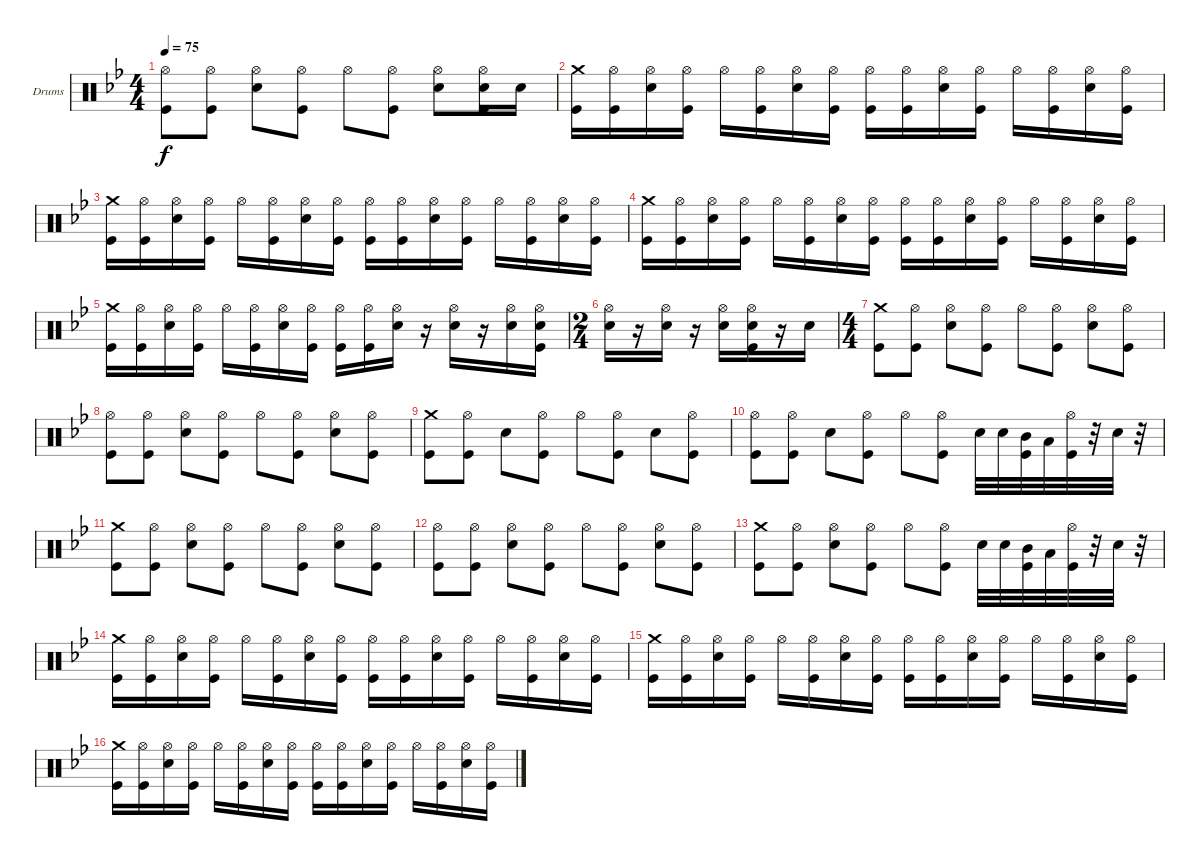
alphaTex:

\bracketExtendMode groupsimilarinstruments
\firstSystemTrackNameOrientation horizontal
\otherSystemsTrackNameOrientation horizontal
\track ("Drumkit" "Drums") {instrument percussion}
\staff {score}
\articulation defaults
\ts (4 4)
\tempo 75
\clef neutral
\ks bb
("Hi-Hat (open)" "Kick (hit)").8{dy f} ("Hi-Hat (open)" "Kick (hit)").8 ("Hi-Hat (open)" "Snare (hit) 2").8 ("Hi-Hat (open)" "Kick (hit)").8 "Hi-Hat (open)".8 ("Hi-Hat (open)" "Kick (hit)").8 ("Hi-Hat (open)" "Snare (hit) 2").8 ("Hi-Hat (open)" "Snare (hit) 2" "Kick (hit)").16 "Snare (hit) 2".16 |
("Crash medium (hit)" "Kick (hit)").16 ("Hi-Hat (open)" "Kick (hit)").16 ("Hi-Hat (open)" "Snare (hit) 2").16 ("Hi-Hat (open)" "Kick (hit)").16 "Hi-Hat (open)".16 ("Hi-Hat (open)" "Kick (hit)").16 ("Hi-Hat (open)" "Snare (hit) 2").16 ("Hi-Hat (open)" "Kick (hit)").16 ("Hi-Hat (open)" "Kick (hit)").16 ("Hi-Hat (open)" "Kick (hit)").16 ("Hi-Hat (open)" "Snare (hit) 2").16 ("Hi-Hat (open)" "Kick (hit)").16 "Hi-Hat (open)".16 ("Hi-Hat (open)" "Kick (hit)").16 ("Hi-Hat (open)" "Snare (hit) 2").16 ("Hi-Hat (open)" "Kick (hit)").16 |
("Crash medium (hit)" "Kick (hit)").16 ("Hi-Hat (open)" "Kick (hit)").16 ("Hi-Hat (open)" "Snare (hit) 2").16 ("Hi-Hat (open)" "Kick (hit)").16 "Hi-Hat (open)".16 ("Hi-Hat (open)" "Kick (hit)").16 ("Hi-Hat (open)" "Snare (hit) 2").16 ("Hi-Hat (open)" "Kick (hit)").16 ("Hi-Hat (open)" "Kick (hit)").16 ("Hi-Hat (open)" "Kick (hit)").16 ("Hi-Hat (open)" "Snare (hit) 2").16 ("Hi-Hat (open)" "Kick (hit)").16 "Hi-Hat (open)".16 ("Hi-Hat (open)" "Kick (hit)").16 ("Hi-Hat (open)" "Snare (hit) 2").16 ("Hi-Hat (open)" "Kick (hit)").16 |
("Crash medium (hit)" "Kick (hit)").16 ("Hi-Hat (open)" "Kick (hit)").16 ("Hi-Hat (open)" "Snare (hit) 2").16 ("Hi-Hat (open)" "Kick (hit)").16 "Hi-Hat (open)".16 ("Hi-Hat (open)" "Kick (hit)").16 ("Hi-Hat (open)" "Snare (hit) 2").16 ("Hi-Hat (open)" "Kick (hit)").16 ("Hi-Hat (open)" "Kick (hit)").16 ("Hi-Hat (open)" "Kick (hit)").16 ("Hi-Hat (open)" "Snare (hit) 2").16 ("Hi-Hat (open)" "Kick (hit)").16 "Hi-Hat (open)".16 ("Hi-Hat (open)" "Kick (hit)").16 ("Hi-Hat (open)" "Snare (hit) 2").16 ("Hi-Hat (open)" "Kick (hit)").16 |
("Crash medium (hit)" "Kick (hit)").16 ("Hi-Hat (open)" "Kick (hit)").16 ("Hi-Hat (open)" "Snare (hit) 2").16 ("Hi-Hat (open)" "Kick (hit)").16 "Hi-Hat (open)".16 ("Hi-Hat (open)" "Kick (hit)").16 ("Hi-Hat (open)" "Snare (hit) 2").16 ("Hi-Hat (open)" "Kick (hit)").16 ("Hi-Hat (open)" "Kick (hit)").16 ("Hi-Hat (open)" "Kick (hit)").16 ("Hi-Hat (open)" "Snare (hit) 2").16 r.16 ("Hi-Hat (open)" "Snare (hit) 2").16 r.16 ("Hi-Hat (open)" "Snare (hit) 2").16 ("Hi-Hat (open)" "Snare (hit) 2" "Kick (hit)").16 |
\ts (2 4)
\beaming (8 2 2 2 2)
("Hi-Hat (open)" "Snare (hit) 2").16 r.16 ("Hi-Hat (open)" "Snare (hit) 2").16 r.16 ("Hi-Hat (open)" "Snare (hit) 2").16 ("Hi-Hat (open)" "Snare (hit) 2" "Kick (hit)").16 r.16 "Snare (hit) 2".16 |
\ts (4 4)
\beaming (8 2 2 2 2)
("Crash medium (hit)" "Kick (hit)").8 ("Hi-Hat (open)" "Kick (hit)").8 ("Hi-Hat (open)" "Snare (hit) 2").8 ("Hi-Hat (open)" "Kick (hit)").8 "Hi-Hat (open)".8 ("Hi-Hat (open)" "Kick (hit)").8 ("Hi-Hat (open)" "Snare (hit) 2").8 ("Hi-Hat (open)" "Kick (hit)").8 |
("Hi-Hat (open)" "Kick (hit)").8 ("Hi-Hat (open)" "Kick (hit)").8 ("Hi-Hat (open)" "Snare (hit) 2").8 ("Hi-Hat (open)" "Kick (hit)").8 "Hi-Hat (open)".8 ("Hi-Hat (open)" "Kick (hit)").8 ("Hi-Hat (open)" "Snare (hit) 2").8 ("Hi-Hat (open)" "Kick (hit)").8 |
("Crash medium (hit)" "Kick (hit)").8 ("Hi-Hat (open)" "Kick (hit)").8 "Snare (hit) 2".8 ("Hi-Hat (open)" "Kick (hit)").8 "Hi-Hat (open)".8 ("Hi-Hat (open)" "Kick (hit)").8 "Snare (hit) 2".8 ("Hi-Hat (open)" "Kick (hit)").8 |
("Hi-Hat (open)" "Kick (hit)").8 ("Hi-Hat (open)" "Kick (hit)").8 "Snare (hit) 2".8 ("Hi-Hat (open)" "Kick (hit)").8 "Hi-Hat (open)".8 ("Hi-Hat (open)" "Kick (hit)").8 "Snare (hit) 2".32 "Snare (hit) 2".32 ("Mid Tom (hit)" "Kick (hit)").32 "Low Tom (hit)".32 ("Hi-Hat (open)" "Kick (hit)").32 r.32 "Snare (hit) 2".32 r.32 |
("Crash medium (hit)" "Kick (hit)").8 ("Hi-Hat (open)" "Kick (hit)").8 ("Hi-Hat (open)" "Snare (hit) 2").8 ("Hi-Hat (open)" "Kick (hit)").8 "Hi-Hat (open)".8 ("Hi-Hat (open)" "Kick (hit)").8 ("Hi-Hat (open)" "Snare (hit) 2").8 ("Hi-Hat (open)" "Kick (hit)").8 |
("Hi-Hat (open)" "Kick (hit)").8 ("Hi-Hat (open)" "Kick (hit)").8 ("Hi-Hat (open)" "Snare (hit) 2").8 ("Hi-Hat (open)" "Kick (hit)").8 "Hi-Hat (open)".8 ("Hi-Hat (open)" "Kick (hit)").8 ("Hi-Hat (open)" "Snare (hit) 2").8 ("Hi-Hat (open)" "Kick (hit)").8 |
("Crash medium (hit)" "Kick (hit)").8 ("Hi-Hat (open)" "Kick (hit)").8 ("Hi-Hat (open)" "Snare (hit) 2").8 ("Hi-Hat (open)" "Kick (hit)").8 "Hi-Hat (open)".8 ("Hi-Hat (open)" "Kick (hit)").8 "Snare (hit) 2".32 "Snare (hit) 2".32 ("Mid Tom (hit)" "Kick (hit)").32 "Low Tom (hit)".32 ("Hi-Hat (open)" "Kick (hit)").32 r.32 "Snare (hit) 2".32 r.32 |
("Crash medium (hit)" "Kick (hit)").16 ("Hi-Hat (open)" "Kick (hit)").16 ("Hi-Hat (open)" "Snare (hit) 2").16 ("Hi-Hat (open)" "Kick (hit)").16 "Hi-Hat (open)".16 ("Hi-Hat (open)" "Kick (hit)").16 ("Hi-Hat (open)" "Snare (hit) 2").16 ("Hi-Hat (open)" "Kick (hit)").16 ("Hi-Hat (open)" "Kick (hit)").16 ("Hi-Hat (open)" "Kick (hit)").16 ("Hi-Hat (open)" "Snare (hit) 2").16 ("Hi-Hat (open)" "Kick (hit)").16 "Hi-Hat (open)".16 ("Hi-Hat (open)" "Kick (hit)").16 ("Hi-Hat (open)" "Snare (hit) 2").16 ("Hi-Hat (open)" "Kick (hit)").16 |
("Crash medium (hit)" "Kick (hit)").16 ("Hi-Hat (open)" "Kick (hit)").16 ("Hi-Hat (open)" "Snare (hit) 2").16 ("Hi-Hat (open)" "Kick (hit)").16 "Hi-Hat (open)".16 ("Hi-Hat (open)" "Kick (hit)").16 ("Hi-Hat (open)" "Snare (hit) 2").16 ("Hi-Hat (open)" "Kick (hit)").16 ("Hi-Hat (open)" "Kick (hit)").16 ("Hi-Hat (open)" "Kick (hit)").16 ("Hi-Hat (open)" "Snare (hit) 2").16 ("Hi-Hat (open)" "Kick (hit)").16 "Hi-Hat (open)".16 ("Hi-Hat (open)" "Kick (hit)").16 ("Hi-Hat (open)" "Snare (hit) 2").16 ("Hi-Hat (open)" "Kick (hit)").16 |
("Crash medium (hit)" "Kick (hit)").16 ("Hi-Hat (open)" "Kick (hit)").16 ("Hi-Hat (open)" "Snare (hit) 2").16 ("Hi-Hat (open)" "Kick (hit)").16 "Hi-Hat (open)".16 ("Hi-Hat (open)" "Kick (hit)").16 ("Hi-Hat (open)" "Snare (hit) 2").16 ("Hi-Hat (open)" "Kick (hit)").16 ("Hi-Hat (open)" "Kick (hit)").16 ("Hi-Hat (open)" "Kick (hit)").16 ("Hi-Hat (open)" "Snare (hit) 2").16 ("Hi-Hat (open)" "Kick (hit)").16 "Hi-Hat (open)".16 ("Hi-Hat (open)" "Kick (hit)").16 ("Hi-Hat (open)" "Snare (hit) 2").16 ("Hi-Hat (open)" "Kick (hit)").16
